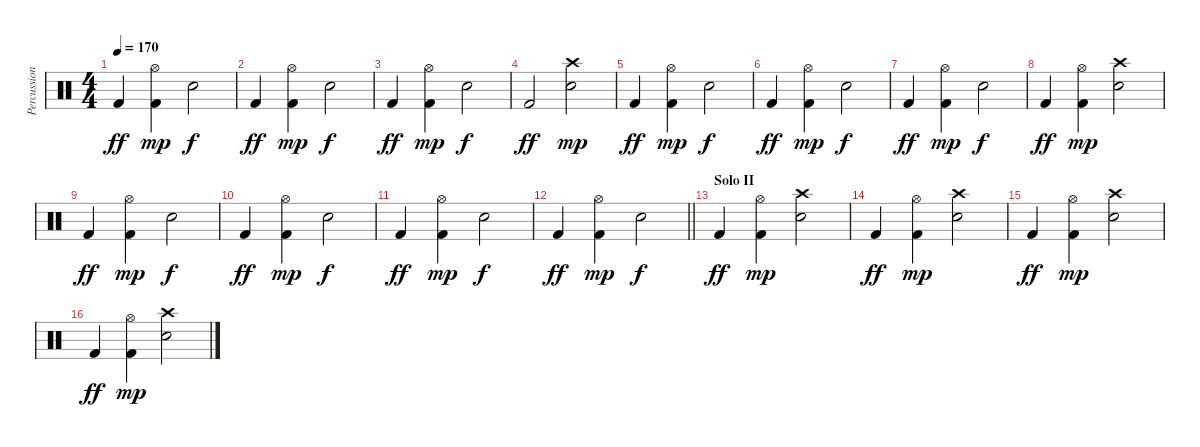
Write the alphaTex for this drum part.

\track ("Percussion" "Percussion") {instrument percussion}
\staff {score}
\articulation defaults
\ts (4 4)
\tempo 170
\clef neutral
\ks c "Kick (hit) 2".4{dy ff}
("Hi-Hat (open)" "Kick (hit) 2").4{dy mp} "Electric Snare (hit)".2{dy f} |
"Kick (hit) 2".4{dy ff} ("Hi-Hat (open)" "Kick (hit) 2").4{dy mp} "Electric Snare (hit)".2{dy f} |
"Kick (hit) 2".4{dy ff} ("Hi-Hat (open)" "Kick (hit) 2").4{dy mp} "Electric Snare (hit)".2{dy f} |
"Kick (hit) 2".2{dy ff} ("Crash high (hit)" "Electric Snare (hit)").2{dy mp} |
"Kick (hit) 2".4{dy ff} ("Hi-Hat (open)" "Kick (hit) 2").4{dy mp} "Electric Snare (hit)".2{dy f} |
"Kick (hit) 2".4{dy ff} ("Hi-Hat (open)" "Kick (hit) 2").4{dy mp} "Electric Snare (hit)".2{dy f} |
"Kick (hit) 2".4{dy ff} ("Hi-Hat (open)" "Kick (hit) 2").4{dy mp} "Electric Snare (hit)".2{dy f} |
"Kick (hit) 2".4{dy ff} ("Hi-Hat (open)" "Kick (hit) 2").4{dy mp} ("Crash high (hit)" "Electric Snare (hit)").2 |
"Kick (hit) 2".4{dy ff} ("Hi-Hat (open)" "Kick (hit) 2").4{dy mp} "Electric Snare (hit)".2{dy f} |
"Kick (hit) 2".4{dy ff} ("Hi-Hat (open)" "Kick (hit) 2").4{dy mp} "Electric Snare (hit)".2{dy f} |
"Kick (hit) 2".4{dy ff} ("Hi-Hat (open)" "Kick (hit) 2").4{dy mp} "Electric Snare (hit)".2{dy f} |
\barLineRight lightlight "Kick (hit) 2".4{dy ff}
("Hi-Hat (open)" "Kick (hit) 2").4{dy mp} "Electric Snare (hit)".2{dy f} |
\section ("" "Solo II")
"Kick (hit) 2".4{dy ff} ("Hi-Hat (open)" "Kick (hit) 2").4{dy mp} ("Crash high (hit)" "Electric Snare (hit)").2 |
"Kick (hit) 2".4{dy ff} ("Hi-Hat (open)" "Kick (hit) 2").4{dy mp} ("Crash high (hit)" "Electric Snare (hit)").2 |
"Kick (hit) 2".4{dy ff} ("Hi-Hat (open)" "Kick (hit) 2").4{dy mp} ("Crash high (hit)" "Electric Snare (hit)").2 |
"Kick (hit) 2".4{dy ff} ("Hi-Hat (open)" "Kick (hit) 2").4{dy mp} ("Crash high (hit)" "Electric Snare (hit)").2
